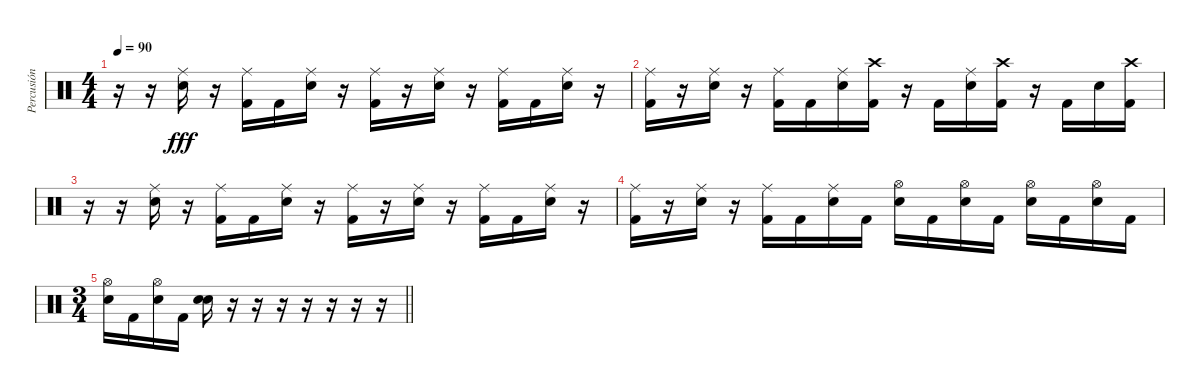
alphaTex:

\track ("Percusión" "Percusión") {instrument percussion}
\staff {score}
\articulation defaults
\ts (4 4)
\tempo 90
\clef neutral
\ks c
r.16{dy fff} r.16 ("Ride (middle)" "Electric Snare (hit)").16 r.16 ("Ride (middle)" "Kick (hit) 2").16 "Kick (hit) 2".16 ("Ride (middle)" "Electric Snare (hit)").16 r.16 ("Ride (middle)" "Kick (hit) 2").16 r.16 ("Ride (middle)" "Electric Snare (hit)").16 r.16 ("Ride (middle)" "Kick (hit) 2").16 "Kick (hit) 2".16 ("Ride (middle)" "Electric Snare (hit)").16 r.16 |
("Ride (middle)" "Kick (hit) 2").16 r.16 ("Ride (middle)" "Electric Snare (hit)").16 r.16 ("Ride (middle)" "Kick (hit) 2").16 "Kick (hit) 2".16 ("Ride (middle)" "Electric Snare (hit)").16 ("Crash high (hit)" "Kick (hit) 2").16 r.16 "Kick (hit) 2".16 ("Ride (middle)" "Electric Snare (hit)").16 ("Crash high (hit)" "Kick (hit) 2").16 r.16 "Kick (hit) 2".16 "Electric Snare (hit)".16 ("Crash high (hit)" "Kick (hit) 2").16 |
r.16 r.16 ("Ride (middle)" "Electric Snare (hit)").16 r.16 ("Ride (middle)" "Kick (hit) 2").16 "Kick (hit) 2".16 ("Ride (middle)" "Electric Snare (hit)").16 r.16 ("Ride (middle)" "Kick (hit) 2").16 r.16 ("Ride (middle)" "Electric Snare (hit)").16 r.16 ("Ride (middle)" "Kick (hit) 2").16 "Kick (hit) 2".16 ("Ride (middle)" "Electric Snare (hit)").16 r.16 |
("Ride (middle)" "Kick (hit) 2").16 r.16 ("Ride (middle)" "Electric Snare (hit)").16 r.16 ("Ride (middle)" "Kick (hit) 2").16 "Kick (hit) 2".16 ("Ride (middle)" "Electric Snare (hit)").16 "Kick (hit) 2".16 ("Hi-Hat (open)" "Electric Snare (hit)").16 "Kick (hit) 2".16 ("Hi-Hat (open)" "Electric Snare (hit)").16 "Kick (hit) 2".16 ("Hi-Hat (open)" "Electric Snare (hit)").16 "Kick (hit) 2".16 ("Hi-Hat (open)" "Electric Snare (hit)").16 "Kick (hit) 2".16 |
\ts (3 4)
\barLineRight lightlight
("Hi-Hat (open)" "Electric Snare (hit)").16 "Kick (hit) 2".16 ("Hi-Hat (open)" "Electric Snare (hit)").16 "Kick (hit) 2".16 ("Electric Snare (hit)" "Electric Snare (hit)").16 r.16 r.16 r.16 r.16 r.16 r.16 r.16
